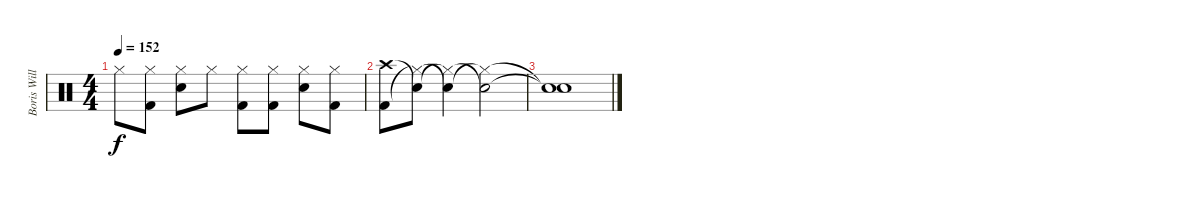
\track ("Boris Williams (drums)" "Boris Will") {instrument percussion}
\staff {score}
\articulation defaults
\ts (4 4)
\tempo 152
\clef neutral
\ks c "Hi-Hat (closed)".8{dy f}
("Kick (hit) 2" "Hi-Hat (closed)").8 ("Snare (hit) 2" "Hi-Hat (closed)").8 "Hi-Hat (closed)".8 ("Kick (hit) 2" "Hi-Hat (closed)").8 ("Kick (hit) 2" "Hi-Hat (closed)").8 ("Snare (hit) 2" "Hi-Hat (closed)").8 ("Kick (hit) 2" "Hi-Hat (closed)").8 |
("Kick (hit) 2" "Crash high (hit)").8 ("Hi-Hat (closed)"{t} "Snare (hit)"{t}).8 ("Snare (hit) 2"{t} "Hi-Hat (closed)"{t}).4 ("Hi-Hat (closed)"{t} "Snare (hit)"{t}).2 |
("Snare (hit)"{t} "Snare (hit)"{t}).1
